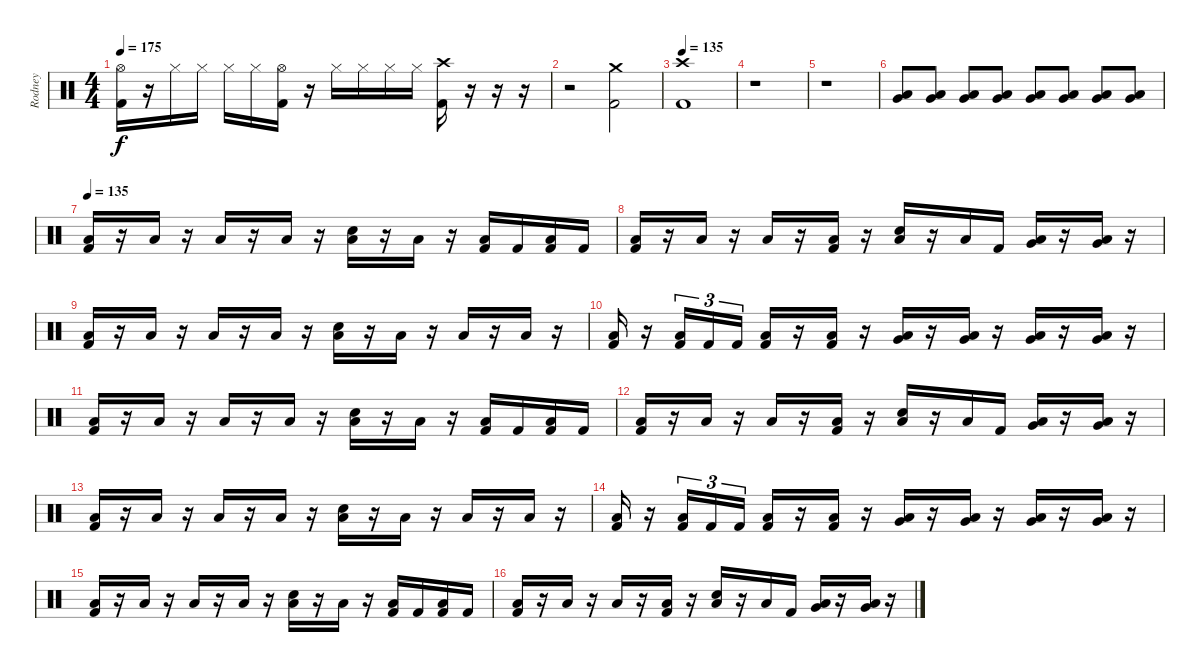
\track ("Rodney" "Rodney") {instrument percussion}
\staff {score}
\articulation defaults
\ts (4 4)
\tempo 175
\clef neutral
\ks c
("Hi-Hat (open)" "Kick (hit) 2").16{dy f} r.16 "Hi-Hat (closed)".16 "Hi-Hat (closed)".16 "Hi-Hat (closed)".16 "Hi-Hat (closed)".16 ("Hi-Hat (open)" "Kick (hit) 2").16 r.16 "Hi-Hat (closed)".16 "Hi-Hat (closed)".16 "Hi-Hat (closed)".16 "Hi-Hat (closed)".16 ("Crash high (hit)" "Kick (hit) 2").16 r.16 r.16 r.16 |
r.2 ("Crash medium (hit)" "Kick (hit) 2").2 |
\tempo 135
("Crash high (hit)" "Kick (hit) 2").1 |
r.1 |
r.1{volume 4} |
("Low Tom (hit)" "Very Low Tom (hit)").8{volume 12} ("Low Tom (hit)" "Very Low Tom (hit)").8 ("Low Tom (hit)" "Very Low Tom (hit)").8 ("Low Tom (hit)" "Very Low Tom (hit)").8 ("Low Tom (hit)" "Very Low Tom (hit)").8 ("Low Tom (hit)" "Very Low Tom (hit)").8 ("Low Tom (hit)" "Very Low Tom (hit)").8 ("Low Tom (hit)" "Very Low Tom (hit)").8 |
\tempo 135
("Low Floor Tom (hit)" "Kick (hit) 2").16 r.16 "Low Floor Tom (hit)".16 r.16 "Low Floor Tom (hit)".16 r.16 "Low Floor Tom (hit)".16 r.16 ("Snare (hit) 2" "Low Floor Tom (hit)").16 r.16 "Low Floor Tom (hit)".16 r.16 ("Low Floor Tom (hit)" "Kick (hit) 2").16 "Kick (hit) 2".16 ("Low Floor Tom (hit)" "Kick (hit) 2").16 "Kick (hit) 2".16 |
("Low Floor Tom (hit)" "Kick (hit) 2").16 r.16 "Low Floor Tom (hit)".16 r.16 "Low Floor Tom (hit)".16 r.16 ("Low Floor Tom (hit)" "Kick (hit) 2").16 r.16 ("Snare (hit) 2" "Low Floor Tom (hit)").16 r.16 "Low Floor Tom (hit)".16 "Kick (hit) 2".16 ("Low Tom (hit)" "Very Low Tom (hit)").16 r.16 ("Very Low Tom (hit)" "Low Floor Tom (hit)").16 r.16 |
("Low Floor Tom (hit)" "Kick (hit) 2").16 r.16 "Low Floor Tom (hit)".16 r.16 "Low Floor Tom (hit)".16 r.16 "Low Floor Tom (hit)".16 r.16 ("Snare (hit) 2" "Low Floor Tom (hit)").16 r.16 "Low Floor Tom (hit)".16 r.16 "Low Floor Tom (hit)".16 r.16 "Low Floor Tom (hit)".16 r.16 |
("Low Floor Tom (hit)" "Kick (hit) 2").16 r.16 ("Low Floor Tom (hit)" "Kick (hit) 2").16{tu (3 2)} "Kick (hit) 2".16{tu (3 2)} "Kick (hit) 2".16{tu (3 2)} ("Low Floor Tom (hit)" "Kick (hit) 2").16 r.16 ("Low Floor Tom (hit)" "Kick (hit) 2").16 r.16 ("Very Low Tom (hit)" "Low Floor Tom (hit)").16 r.16 ("Very Low Tom (hit)" "Low Floor Tom (hit)").16 r.16 ("Low Tom (hit)" "Very Low Tom (hit)").16 r.16 ("Low Tom (hit)" "Very Low Tom (hit)").16 r.16 |
("Low Floor Tom (hit)" "Kick (hit) 2").16 r.16 "Low Floor Tom (hit)".16 r.16 "Low Floor Tom (hit)".16 r.16 "Low Floor Tom (hit)".16 r.16 ("Snare (hit) 2" "Low Floor Tom (hit)").16 r.16 "Low Floor Tom (hit)".16 r.16 ("Low Floor Tom (hit)" "Kick (hit) 2").16 "Kick (hit) 2".16 ("Low Floor Tom (hit)" "Kick (hit) 2").16 "Kick (hit) 2".16 |
("Low Floor Tom (hit)" "Kick (hit) 2").16 r.16 "Low Floor Tom (hit)".16 r.16 "Low Floor Tom (hit)".16 r.16 ("Low Floor Tom (hit)" "Kick (hit) 2").16 r.16 ("Snare (hit) 2" "Low Floor Tom (hit)").16 r.16 "Low Floor Tom (hit)".16 "Kick (hit) 2".16 ("Low Tom (hit)" "Very Low Tom (hit)").16 r.16 ("Very Low Tom (hit)" "Low Floor Tom (hit)").16 r.16 |
("Low Floor Tom (hit)" "Kick (hit) 2").16 r.16 "Low Floor Tom (hit)".16 r.16 "Low Floor Tom (hit)".16 r.16 "Low Floor Tom (hit)".16 r.16 ("Snare (hit) 2" "Low Floor Tom (hit)").16 r.16 "Low Floor Tom (hit)".16 r.16 "Low Floor Tom (hit)".16 r.16 "Low Floor Tom (hit)".16 r.16 |
("Low Floor Tom (hit)" "Kick (hit) 2").16 r.16 ("Low Floor Tom (hit)" "Kick (hit) 2").16{tu (3 2)} "Kick (hit) 2".16{tu (3 2)} "Kick (hit) 2".16{tu (3 2)} ("Low Floor Tom (hit)" "Kick (hit) 2").16 r.16 ("Low Floor Tom (hit)" "Kick (hit) 2").16 r.16 ("Very Low Tom (hit)" "Low Floor Tom (hit)").16 r.16 ("Very Low Tom (hit)" "Low Floor Tom (hit)").16 r.16 ("Low Tom (hit)" "Very Low Tom (hit)").16 r.16 ("Low Tom (hit)" "Very Low Tom (hit)").16 r.16 |
("Low Floor Tom (hit)" "Kick (hit) 2").16 r.16 "Low Floor Tom (hit)".16 r.16 "Low Floor Tom (hit)".16 r.16 "Low Floor Tom (hit)".16 r.16 ("Snare (hit) 2" "Low Floor Tom (hit)").16 r.16 "Low Floor Tom (hit)".16 r.16 ("Low Floor Tom (hit)" "Kick (hit) 2").16 "Kick (hit) 2".16 ("Low Floor Tom (hit)" "Kick (hit) 2").16 "Kick (hit) 2".16 |
("Low Floor Tom (hit)" "Kick (hit) 2").16 r.16 "Low Floor Tom (hit)".16 r.16 "Low Floor Tom (hit)".16 r.16 ("Low Floor Tom (hit)" "Kick (hit) 2").16 r.16 ("Snare (hit) 2" "Low Floor Tom (hit)").16 r.16 "Low Floor Tom (hit)".16 "Kick (hit) 2".16 ("Low Tom (hit)" "Very Low Tom (hit)").16 r.16 ("Very Low Tom (hit)" "Low Floor Tom (hit)").16 r.16
